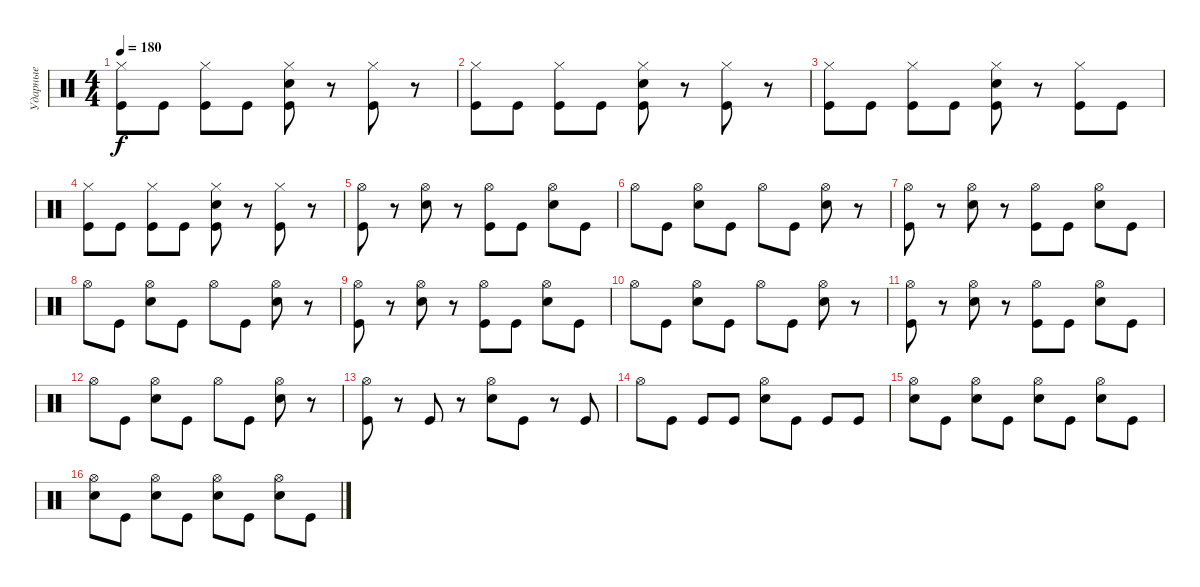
\track ("Ударные" "Ударные") {instrument percussion}
\staff {score}
\articulation defaults
\ts (4 4)
\tempo 180
\clef neutral
\ks c
("Hi-Hat (closed)" "Kick (hit)").8{dy f} "Kick (hit)".8 ("Hi-Hat (closed)" "Kick (hit)").8 "Kick (hit)".8 ("Hi-Hat (closed)" "Kick (hit)" "Electric Snare (hit)").8 r.8 ("Hi-Hat (closed)" "Kick (hit)").8 r.8 |
("Hi-Hat (closed)" "Kick (hit)").8 "Kick (hit)".8 ("Hi-Hat (closed)" "Kick (hit)").8 "Kick (hit)".8 ("Hi-Hat (closed)" "Kick (hit)" "Electric Snare (hit)").8 r.8 ("Hi-Hat (closed)" "Kick (hit)").8 r.8 |
("Hi-Hat (closed)" "Kick (hit)").8 "Kick (hit)".8 ("Hi-Hat (closed)" "Kick (hit)").8 "Kick (hit)".8 ("Hi-Hat (closed)" "Kick (hit)" "Electric Snare (hit)").8 r.8 ("Hi-Hat (closed)" "Kick (hit)").8 "Kick (hit)".8 |
("Hi-Hat (closed)" "Kick (hit)").8 "Kick (hit)".8 ("Hi-Hat (closed)" "Kick (hit)").8 "Kick (hit)".8 ("Hi-Hat (closed)" "Kick (hit)" "Electric Snare (hit)").8 r.8 ("Hi-Hat (closed)" "Kick (hit)").8 r.8 |
("Hi-Hat (open)" "Kick (hit)").8 r.8 ("Hi-Hat (open)" "Electric Snare (hit)").8 r.8 ("Hi-Hat (open)" "Kick (hit)").8 "Kick (hit)".8 ("Hi-Hat (open)" "Electric Snare (hit)").8 "Kick (hit)".8 |
"Hi-Hat (open)".8 "Kick (hit)".8 ("Hi-Hat (open)" "Electric Snare (hit)").8 "Kick (hit)".8 "Hi-Hat (open)".8 "Kick (hit)".8 ("Hi-Hat (open)" "Electric Snare (hit)").8 r.8 |
("Hi-Hat (open)" "Kick (hit)").8 r.8 ("Hi-Hat (open)" "Electric Snare (hit)").8 r.8 ("Hi-Hat (open)" "Kick (hit)").8 "Kick (hit)".8 ("Hi-Hat (open)" "Electric Snare (hit)").8 "Kick (hit)".8 |
"Hi-Hat (open)".8 "Kick (hit)".8 ("Hi-Hat (open)" "Electric Snare (hit)").8 "Kick (hit)".8 "Hi-Hat (open)".8 "Kick (hit)".8 ("Hi-Hat (open)" "Electric Snare (hit)").8 r.8 |
("Hi-Hat (open)" "Kick (hit)").8 r.8 ("Hi-Hat (open)" "Electric Snare (hit)").8 r.8 ("Hi-Hat (open)" "Kick (hit)").8 "Kick (hit)".8 ("Hi-Hat (open)" "Electric Snare (hit)").8 "Kick (hit)".8 |
"Hi-Hat (open)".8 "Kick (hit)".8 ("Hi-Hat (open)" "Electric Snare (hit)").8 "Kick (hit)".8 "Hi-Hat (open)".8 "Kick (hit)".8 ("Hi-Hat (open)" "Electric Snare (hit)").8 r.8 |
("Hi-Hat (open)" "Kick (hit)").8 r.8 ("Hi-Hat (open)" "Electric Snare (hit)").8 r.8 ("Hi-Hat (open)" "Kick (hit)").8 "Kick (hit)".8 ("Hi-Hat (open)" "Electric Snare (hit)").8 "Kick (hit)".8 |
"Hi-Hat (open)".8 "Kick (hit)".8 ("Hi-Hat (open)" "Electric Snare (hit)").8 "Kick (hit)".8 "Hi-Hat (open)".8 "Kick (hit)".8 ("Hi-Hat (open)" "Electric Snare (hit)").8 r.8 |
("Hi-Hat (open)" "Kick (hit)").8 r.8 "Kick (hit)".8 r.8 ("Hi-Hat (open)" "Electric Snare (hit)").8 "Kick (hit)".8 r.8 "Kick (hit)".8 |
"Hi-Hat (open)".8 "Kick (hit)".8 "Kick (hit)".8 "Kick (hit)".8 ("Hi-Hat (open)" "Electric Snare (hit)").8 "Kick (hit)".8 "Kick (hit)".8 "Kick (hit)".8 |
("Hi-Hat (open)" "Electric Snare (hit)").8 "Kick (hit)".8 ("Hi-Hat (open)" "Electric Snare (hit)").8 "Kick (hit)".8 ("Hi-Hat (open)" "Electric Snare (hit)").8 "Kick (hit)".8 ("Hi-Hat (open)" "Electric Snare (hit)").8 "Kick (hit)".8 |
("Hi-Hat (open)" "Electric Snare (hit)").8 "Kick (hit)".8 ("Hi-Hat (open)" "Electric Snare (hit)").8 "Kick (hit)".8 ("Hi-Hat (open)" "Electric Snare (hit)").8 "Kick (hit)".8 ("Hi-Hat (open)" "Electric Snare (hit)").8 "Kick (hit)".8
